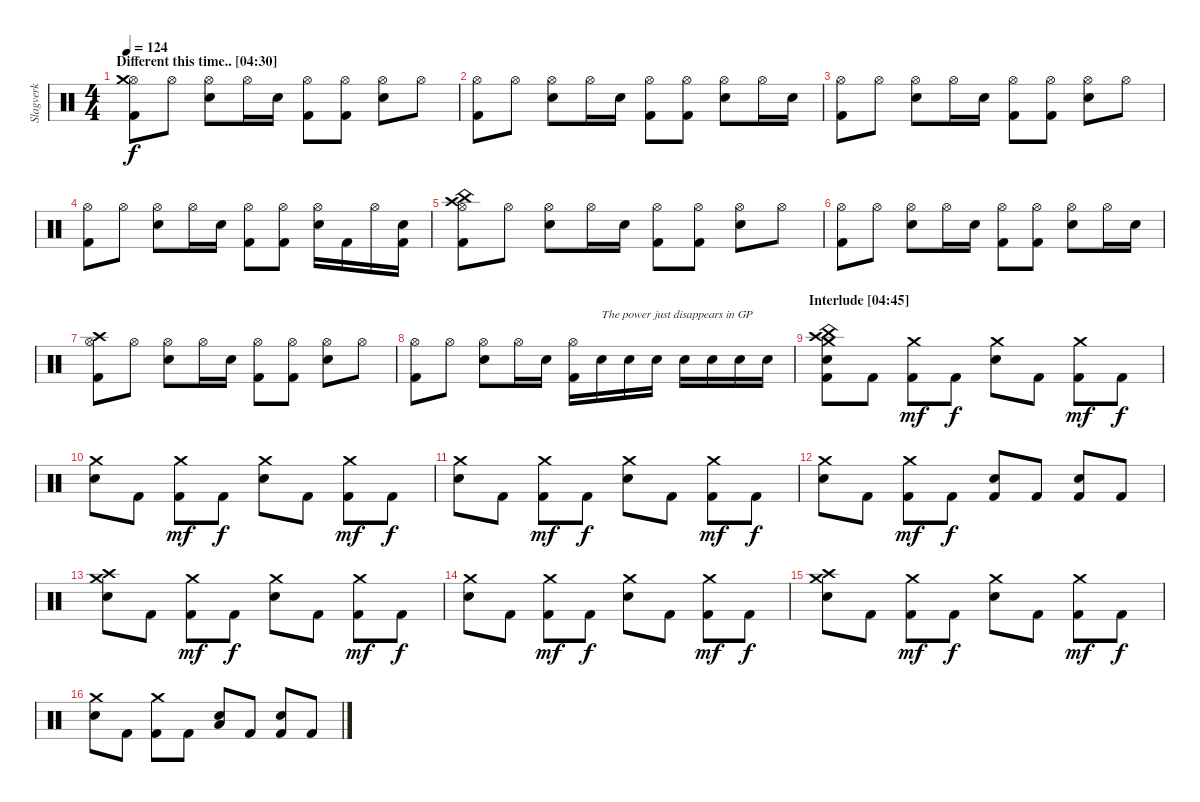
\track ("Slagverk" "Slagverk") {instrument percussion}
\staff {score}
\articulation defaults
\ts (4 4)
\section ("" "Different this time.. [04:30]")
\tempo 124
\clef neutral
\ks c
("Hi-Hat (open)" "Crash medium (hit)" "Kick (hit) 2").8{dy f} "Hi-Hat (open)".8 ("Hi-Hat (open)" "Electric Snare (hit)").8 "Hi-Hat (open)".16 "Electric Snare (hit)".16 ("Hi-Hat (open)" "Kick (hit) 2").8 ("Hi-Hat (open)" "Kick (hit) 2").8 ("Hi-Hat (open)" "Electric Snare (hit)").8 "Hi-Hat (open)".8 |
("Hi-Hat (open)" "Kick (hit) 2").8 "Hi-Hat (open)".8 ("Hi-Hat (open)" "Electric Snare (hit)").8 "Hi-Hat (open)".16 "Electric Snare (hit)".16 ("Hi-Hat (open)" "Kick (hit) 2").8 ("Hi-Hat (open)" "Kick (hit) 2").8 ("Hi-Hat (open)" "Electric Snare (hit)").8 "Hi-Hat (open)".16 "Electric Snare (hit)".16 |
("Hi-Hat (open)" "Kick (hit) 2").8 "Hi-Hat (open)".8 ("Hi-Hat (open)" "Electric Snare (hit)").8 "Hi-Hat (open)".16 "Electric Snare (hit)".16 ("Hi-Hat (open)" "Kick (hit) 2").8 ("Hi-Hat (open)" "Kick (hit) 2").8 ("Hi-Hat (open)" "Electric Snare (hit)").8 "Hi-Hat (open)".8 |
("Hi-Hat (open)" "Kick (hit) 2").8 "Hi-Hat (open)".8 ("Hi-Hat (open)" "Electric Snare (hit)").8 "Hi-Hat (open)".16 "Electric Snare (hit)".16 ("Hi-Hat (open)" "Kick (hit) 2").8 ("Hi-Hat (open)" "Kick (hit) 2").8 ("Hi-Hat (open)" "Electric Snare (hit)").16 "Kick (hit) 2".16 "Hi-Hat (open)".16 ("Electric Snare (hit)" "Kick (hit) 2").16 |
("Hi-Hat (open)" "China (hit)" "Crash high (hit)" "Kick (hit) 2").8 "Hi-Hat (open)".8 ("Hi-Hat (open)" "Electric Snare (hit)").8 "Hi-Hat (open)".16 "Electric Snare (hit)".16 ("Hi-Hat (open)" "Kick (hit) 2").8 ("Hi-Hat (open)" "Kick (hit) 2").8 ("Hi-Hat (open)" "Electric Snare (hit)").8 "Hi-Hat (open)".8 |
("Hi-Hat (open)" "Kick (hit) 2").8 "Hi-Hat (open)".8 ("Hi-Hat (open)" "Electric Snare (hit)").8 "Hi-Hat (open)".16 "Electric Snare (hit)".16 ("Hi-Hat (open)" "Kick (hit) 2").8 ("Hi-Hat (open)" "Kick (hit) 2").8 ("Hi-Hat (open)" "Electric Snare (hit)").8 "Hi-Hat (open)".16 "Electric Snare (hit)".16 |
("Hi-Hat (open)" "Crash high (hit)" "Kick (hit) 2").8 "Hi-Hat (open)".8 ("Hi-Hat (open)" "Electric Snare (hit)").8 "Hi-Hat (open)".16 "Electric Snare (hit)".16 ("Hi-Hat (open)" "Kick (hit) 2").8 ("Hi-Hat (open)" "Kick (hit) 2").8 ("Hi-Hat (open)" "Electric Snare (hit)").8 "Hi-Hat (open)".8 |
("Hi-Hat (open)" "Kick (hit) 2").8 "Hi-Hat (open)".8 ("Hi-Hat (open)" "Electric Snare (hit)").8 "Hi-Hat (open)".16 "Electric Snare (hit)".16 ("Hi-Hat (open)" "Kick (hit) 2").16 "Electric Snare (hit)".16{txt "The power just disappears in GP"} "Electric Snare (hit)".16 "Electric Snare (hit)".16 "Electric Snare (hit)".16 "Electric Snare (hit)".16 "Electric Snare (hit)".16 "Electric Snare (hit)".16 |
\section ("" "Interlude [04:45]")
("Crash medium (hit)" "Crash high (hit)" "China (hit)" "Electric Snare (hit)" "Kick (hit) 2").8 "Kick (hit) 2".8 ("Crash medium (hit)" "Kick (hit) 2").8{dy mf} "Kick (hit) 2".8{dy f} ("Crash medium (hit)" "Electric Snare (hit)").8 "Kick (hit) 2".8 ("Crash medium (hit)" "Kick (hit) 2").8{dy mf} "Kick (hit) 2".8{dy f} |
("Crash medium (hit)" "Electric Snare (hit)").8 "Kick (hit) 2".8 ("Crash medium (hit)" "Kick (hit) 2").8{dy mf} "Kick (hit) 2".8{dy f} ("Crash medium (hit)" "Electric Snare (hit)").8 "Kick (hit) 2".8 ("Crash medium (hit)" "Kick (hit) 2").8{dy mf} "Kick (hit) 2".8{dy f} |
("Crash medium (hit)" "Electric Snare (hit)").8 "Kick (hit) 2".8 ("Crash medium (hit)" "Kick (hit) 2").8{dy mf} "Kick (hit) 2".8{dy f} ("Crash medium (hit)" "Electric Snare (hit)").8 "Kick (hit) 2".8 ("Crash medium (hit)" "Kick (hit) 2").8{dy mf} "Kick (hit) 2".8{dy f} |
("Crash medium (hit)" "Electric Snare (hit)").8 "Kick (hit) 2".8 ("Crash medium (hit)" "Kick (hit) 2").8{dy mf} "Kick (hit) 2".8{dy f} ("Electric Snare (hit)" "Kick (hit) 2").8 "Kick (hit) 2".8 ("Electric Snare (hit)" "Kick (hit) 2").8 "Kick (hit) 2".8 |
("Crash medium (hit)" "Crash high (hit)" "Electric Snare (hit)").8 "Kick (hit) 2".8 ("Crash medium (hit)" "Kick (hit) 2").8{dy mf} "Kick (hit) 2".8{dy f} ("Crash medium (hit)" "Electric Snare (hit)").8 "Kick (hit) 2".8 ("Crash medium (hit)" "Kick (hit) 2").8{dy mf} "Kick (hit) 2".8{dy f} |
("Crash medium (hit)" "Electric Snare (hit)").8 "Kick (hit) 2".8 ("Crash medium (hit)" "Kick (hit) 2").8{dy mf} "Kick (hit) 2".8{dy f} ("Crash medium (hit)" "Electric Snare (hit)").8 "Kick (hit) 2".8 ("Crash medium (hit)" "Kick (hit) 2").8{dy mf} "Kick (hit) 2".8{dy f} |
("Crash medium (hit)" "Crash high (hit)" "Electric Snare (hit)").8 "Kick (hit) 2".8 ("Crash medium (hit)" "Kick (hit) 2").8{dy mf} "Kick (hit) 2".8{dy f} ("Crash medium (hit)" "Electric Snare (hit)").8 "Kick (hit) 2".8 ("Crash medium (hit)" "Kick (hit) 2").8{dy mf} "Kick (hit) 2".8{dy f} |
("Crash medium (hit)" "Electric Snare (hit)").8 "Kick (hit) 2".8 ("Crash medium (hit)" "Kick (hit) 2").8 "Kick (hit) 2".8 ("Electric Snare (hit)" "Low Tom (hit)").8 "Kick (hit) 2".8 ("Electric Snare (hit)" "Kick (hit) 2").8 "Kick (hit) 2".8
